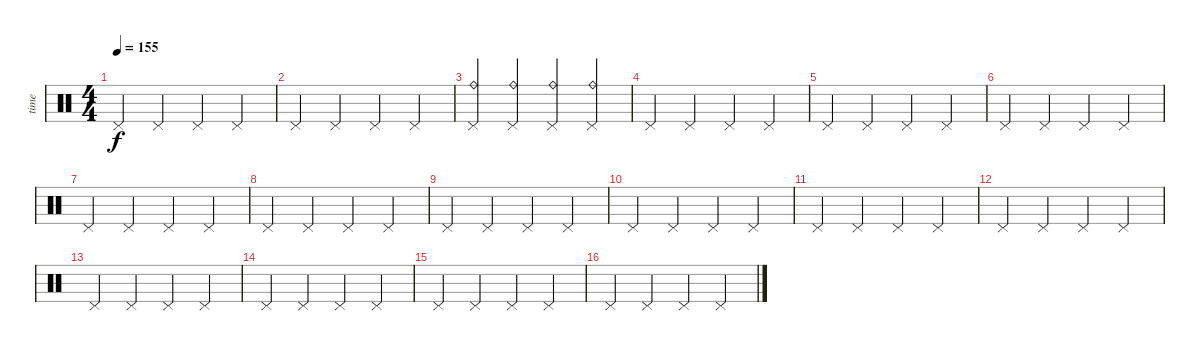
\track ("time" "time") {instrument percussion}
\staff {score}
\articulation defaults
\ts (4 4)
\tempo 155
\clef neutral
\ks c "Pedal Hi-Hat (hit)".4{dy f} "Pedal Hi-Hat (hit)".4 "Pedal Hi-Hat (hit)".4 "Pedal Hi-Hat (hit)".4
|
"Pedal Hi-Hat (hit)".4 "Pedal Hi-Hat (hit)".4 "Pedal Hi-Hat (hit)".4 "Pedal Hi-Hat (hit)".4 |
("Pedal Hi-Hat (hit)" "Ride (bell)").4 ("Pedal Hi-Hat (hit)" "Ride (bell)").4 ("Pedal Hi-Hat (hit)" "Ride (bell)").4 ("Pedal Hi-Hat (hit)" "Ride (bell)").4 |
"Pedal Hi-Hat (hit)".4 "Pedal Hi-Hat (hit)".4 "Pedal Hi-Hat (hit)".4 "Pedal Hi-Hat (hit)".4 |
"Pedal Hi-Hat (hit)".4 "Pedal Hi-Hat (hit)".4 "Pedal Hi-Hat (hit)".4 "Pedal Hi-Hat (hit)".4 |
"Pedal Hi-Hat (hit)".4 "Pedal Hi-Hat (hit)".4 "Pedal Hi-Hat (hit)".4 "Pedal Hi-Hat (hit)".4 |
"Pedal Hi-Hat (hit)".4 "Pedal Hi-Hat (hit)".4 "Pedal Hi-Hat (hit)".4 "Pedal Hi-Hat (hit)".4 |
"Pedal Hi-Hat (hit)".4 "Pedal Hi-Hat (hit)".4 "Pedal Hi-Hat (hit)".4 "Pedal Hi-Hat (hit)".4 |
"Pedal Hi-Hat (hit)".4 "Pedal Hi-Hat (hit)".4 "Pedal Hi-Hat (hit)".4 "Pedal Hi-Hat (hit)".4 |
"Pedal Hi-Hat (hit)".4 "Pedal Hi-Hat (hit)".4 "Pedal Hi-Hat (hit)".4 "Pedal Hi-Hat (hit)".4 |
"Pedal Hi-Hat (hit)".4 "Pedal Hi-Hat (hit)".4 "Pedal Hi-Hat (hit)".4 "Pedal Hi-Hat (hit)".4 |
"Pedal Hi-Hat (hit)".4 "Pedal Hi-Hat (hit)".4 "Pedal Hi-Hat (hit)".4 "Pedal Hi-Hat (hit)".4 |
"Pedal Hi-Hat (hit)".4 "Pedal Hi-Hat (hit)".4 "Pedal Hi-Hat (hit)".4 "Pedal Hi-Hat (hit)".4 |
"Pedal Hi-Hat (hit)".4 "Pedal Hi-Hat (hit)".4 "Pedal Hi-Hat (hit)".4 "Pedal Hi-Hat (hit)".4 |
"Pedal Hi-Hat (hit)".4 "Pedal Hi-Hat (hit)".4 "Pedal Hi-Hat (hit)".4 "Pedal Hi-Hat (hit)".4 |
"Pedal Hi-Hat (hit)".4 "Pedal Hi-Hat (hit)".4 "Pedal Hi-Hat (hit)".4 "Pedal Hi-Hat (hit)".4
